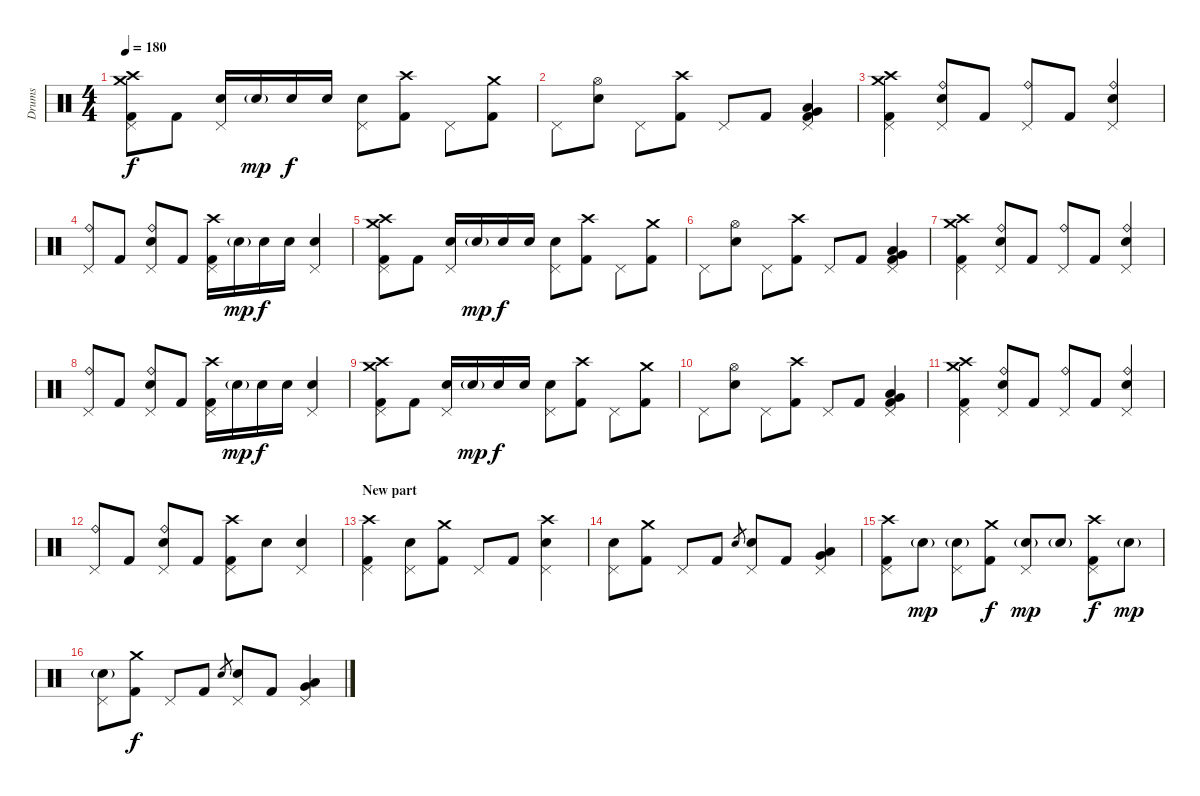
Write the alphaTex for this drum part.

\track ("Drums" "Drums") {instrument percussion}
\staff {score}
\articulation defaults
\ts (4 4)
\tempo 180
\clef neutral
\ks c
("Crash high (hit)" "Pedal Hi-Hat (hit)" "Crash medium (hit)" "Kick (hit) 2").8{dy f} "Kick (hit) 2".8 ("Pedal Hi-Hat (hit)" "Snare (hit) 2").16 "Snare (hit) 2"{g}.16{dy mp} "Snare (hit) 2".16{dy f} "Snare (hit) 2".16 ("Pedal Hi-Hat (hit)" "Snare (hit) 2").8 ("Crash high (hit)" "Kick (hit) 2").8 "Pedal Hi-Hat (hit)".8 ("Crash medium (hit)" "Kick (hit) 2").8 |
"Pedal Hi-Hat (hit)".8 ("Hi-Hat (open)" "Snare (hit) 2").8 "Pedal Hi-Hat (hit)".8 ("Crash high (hit)" "Kick (hit) 2").8 "Pedal Hi-Hat (hit)".8 "Kick (hit) 2".8 ("Pedal Hi-Hat (hit)" "Very Low Tom (hit)" "Low Floor Tom (hit)" "Kick (hit) 2").4 |
("Crash high (hit)" "Pedal Hi-Hat (hit)" "Crash medium (hit)" "Kick (hit) 2").4 ("Ride (bell)" "Pedal Hi-Hat (hit)" "Snare (hit) 2").8 "Kick (hit) 2".8 ("Ride (bell)" "Pedal Hi-Hat (hit)").8 "Kick (hit) 2".8 ("Ride (bell)" "Pedal Hi-Hat (hit)" "Snare (hit) 2").4 |
("Ride (bell)" "Pedal Hi-Hat (hit)").8 "Kick (hit) 2".8 ("Ride (bell)" "Pedal Hi-Hat (hit)" "Snare (hit) 2").8 "Kick (hit) 2".8 ("Crash high (hit)" "Pedal Hi-Hat (hit)" "Kick (hit) 2").16 "Snare (hit) 2"{g}.16{dy mp} "Snare (hit) 2".16{dy f} "Snare (hit) 2".16 ("Pedal Hi-Hat (hit)" "Snare (hit) 2").4 |
("Crash high (hit)" "Pedal Hi-Hat (hit)" "Crash medium (hit)" "Kick (hit) 2").8 "Kick (hit) 2".8 ("Pedal Hi-Hat (hit)" "Snare (hit) 2").16 "Snare (hit) 2"{g}.16{dy mp} "Snare (hit) 2".16{dy f} "Snare (hit) 2".16 ("Pedal Hi-Hat (hit)" "Snare (hit) 2").8 ("Crash high (hit)" "Kick (hit) 2").8 "Pedal Hi-Hat (hit)".8 ("Crash medium (hit)" "Kick (hit) 2").8 |
"Pedal Hi-Hat (hit)".8 ("Hi-Hat (open)" "Snare (hit) 2").8 "Pedal Hi-Hat (hit)".8 ("Crash high (hit)" "Kick (hit) 2").8 "Pedal Hi-Hat (hit)".8 "Kick (hit) 2".8 ("Pedal Hi-Hat (hit)" "Very Low Tom (hit)" "Low Floor Tom (hit)" "Kick (hit) 2").4 |
("Crash high (hit)" "Pedal Hi-Hat (hit)" "Crash medium (hit)" "Kick (hit) 2").4 ("Ride (bell)" "Pedal Hi-Hat (hit)" "Snare (hit) 2").8 "Kick (hit) 2".8 ("Ride (bell)" "Pedal Hi-Hat (hit)").8 "Kick (hit) 2".8 ("Ride (bell)" "Pedal Hi-Hat (hit)" "Snare (hit) 2").4 |
("Ride (bell)" "Pedal Hi-Hat (hit)").8 "Kick (hit) 2".8 ("Ride (bell)" "Pedal Hi-Hat (hit)" "Snare (hit) 2").8 "Kick (hit) 2".8 ("Crash high (hit)" "Pedal Hi-Hat (hit)" "Kick (hit) 2").16 "Snare (hit) 2"{g}.16{dy mp} "Snare (hit) 2".16{dy f} "Snare (hit) 2".16 ("Pedal Hi-Hat (hit)" "Snare (hit) 2").4 |
("Crash high (hit)" "Pedal Hi-Hat (hit)" "Crash medium (hit)" "Kick (hit) 2").8 "Kick (hit) 2".8 ("Pedal Hi-Hat (hit)" "Snare (hit) 2").16 "Snare (hit) 2"{g}.16{dy mp} "Snare (hit) 2".16{dy f} "Snare (hit) 2".16 ("Pedal Hi-Hat (hit)" "Snare (hit) 2").8 ("Crash high (hit)" "Kick (hit) 2").8 "Pedal Hi-Hat (hit)".8 ("Crash medium (hit)" "Kick (hit) 2").8 |
"Pedal Hi-Hat (hit)".8 ("Hi-Hat (open)" "Snare (hit) 2").8 "Pedal Hi-Hat (hit)".8 ("Crash high (hit)" "Kick (hit) 2").8 "Pedal Hi-Hat (hit)".8 "Kick (hit) 2".8 ("Pedal Hi-Hat (hit)" "Very Low Tom (hit)" "Low Floor Tom (hit)" "Kick (hit) 2").4 |
("Crash high (hit)" "Pedal Hi-Hat (hit)" "Crash medium (hit)" "Kick (hit) 2").4 ("Ride (bell)" "Pedal Hi-Hat (hit)" "Snare (hit) 2").8 "Kick (hit) 2".8 ("Ride (bell)" "Pedal Hi-Hat (hit)").8 "Kick (hit) 2".8 ("Ride (bell)" "Pedal Hi-Hat (hit)" "Snare (hit) 2").4 |
("Ride (bell)" "Pedal Hi-Hat (hit)").8 "Kick (hit) 2".8 ("Ride (bell)" "Pedal Hi-Hat (hit)" "Snare (hit) 2").8 "Kick (hit) 2".8 ("Crash high (hit)" "Pedal Hi-Hat (hit)" "Kick (hit) 2").8 "Snare (hit) 2".8 ("Pedal Hi-Hat (hit)" "Snare (hit) 2").4 |
\section ("" "New part")
("Crash high (hit)" "Pedal Hi-Hat (hit)" "Kick (hit) 2").4 ("Pedal Hi-Hat (hit)" "Snare (hit) 2").8 ("Crash medium (hit)" "Kick (hit) 2").8 "Pedal Hi-Hat (hit)".8 "Kick (hit) 2".8 ("Crash high (hit)" "Pedal Hi-Hat (hit)" "Snare (hit) 2").4 |
("Pedal Hi-Hat (hit)" "Snare (hit) 2").8 ("Crash medium (hit)" "Kick (hit) 2").8 "Pedal Hi-Hat (hit)".8 "Kick (hit) 2".8 "Snare (hit) 2".8{gr} ("Pedal Hi-Hat (hit)" "Snare (hit) 2").8 "Kick (hit) 2".8 ("Pedal Hi-Hat (hit)" "Very Low Tom (hit)" "Low Floor Tom (hit)").4 |
("Crash high (hit)" "Pedal Hi-Hat (hit)" "Kick (hit) 2").8 "Snare (hit) 2"{g}.8{dy mp} ("Pedal Hi-Hat (hit)" "Snare (hit) 2"{g}).8 ("Crash medium (hit)" "Kick (hit) 2").8{dy f} ("Pedal Hi-Hat (hit)" "Snare (hit) 2"{g}).8{dy mp} "Snare (hit) 2"{g}.8 ("Crash high (hit)" "Pedal Hi-Hat (hit)" "Kick (hit) 2").8{dy f} "Snare (hit) 2"{g}.8{dy mp} |
("Pedal Hi-Hat (hit)" "Snare (hit) 2"{g}).8 ("Crash medium (hit)" "Kick (hit) 2").8{dy f} "Pedal Hi-Hat (hit)".8 "Kick (hit) 2".8 "Snare (hit) 2".8{gr} ("Pedal Hi-Hat (hit)" "Snare (hit) 2").8 "Kick (hit) 2".8 ("Pedal Hi-Hat (hit)" "Very Low Tom (hit)" "Low Floor Tom (hit)").4
